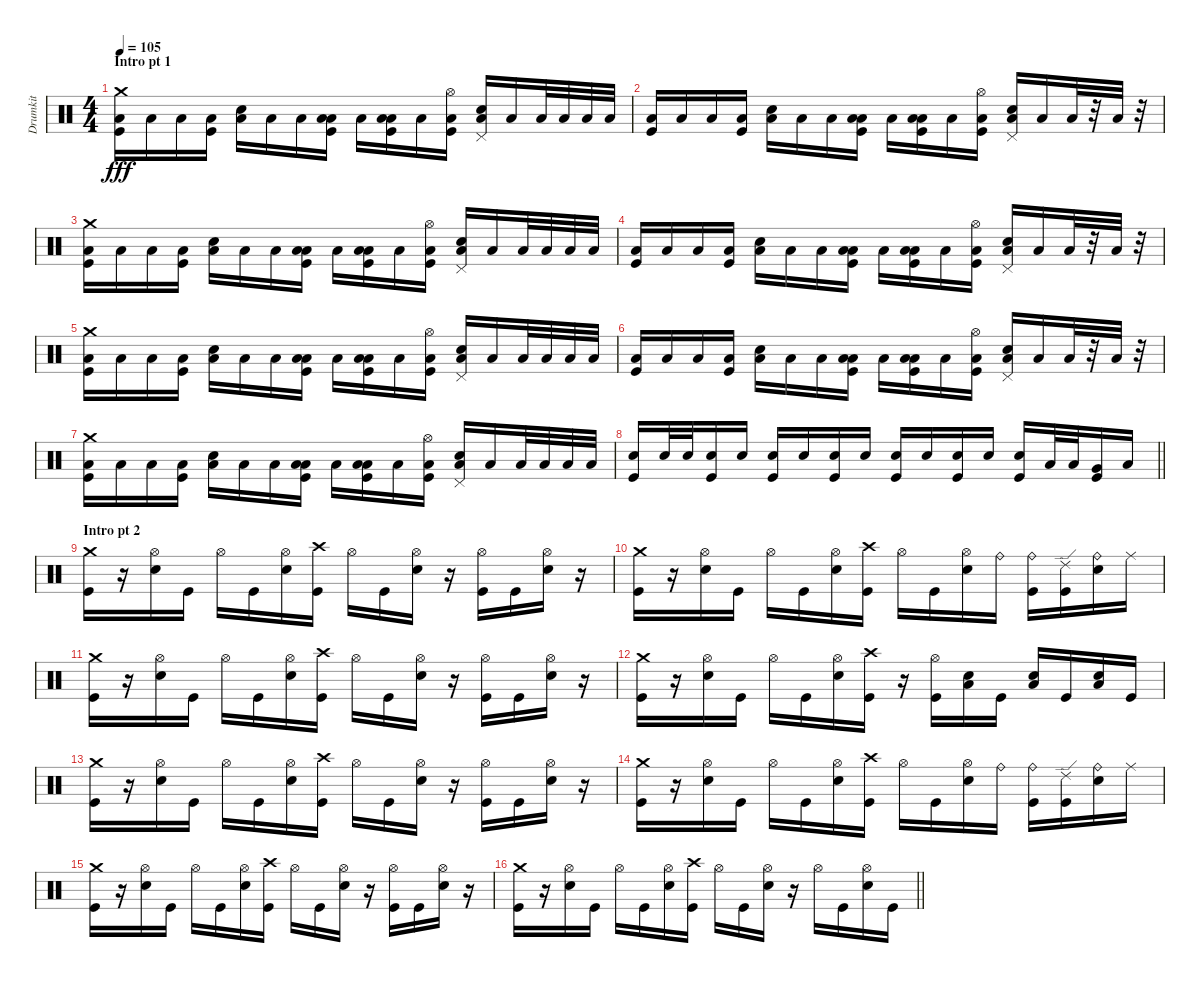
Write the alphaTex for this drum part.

\track ("Drumkit" "Drumkit") {instrument percussion}
\staff {score}
\articulation defaults
\ts (4 4)
\section ("" "Intro pt 1")
\tempo 105
\clef neutral
\ks c
("Crash medium (hit)" "Low Floor Tom (hit)" "Kick (hit)").16{dy fff} "Low Floor Tom (hit)".16 "Low Floor Tom (hit)".16 ("Low Floor Tom (hit)" "Kick (hit)").16 ("Snare (hit) 2" "Low Floor Tom (hit)").16 "Low Floor Tom (hit)".16 "Low Floor Tom (hit)".16 ("Low Tom (hit)" "Low Floor Tom (hit)" "Kick (hit)").16 "Low Floor Tom (hit)".16 ("Low Tom (hit)" "Low Floor Tom (hit)" "Kick (hit)").16 "Low Floor Tom (hit)".16 ("Hi-Hat (open)" "Low Floor Tom (hit)" "Kick (hit)").16 ("Pedal Hi-Hat (hit)" "Snare (hit) 2" "Low Floor Tom (hit)").16 "Low Floor Tom (hit)".16 "Low Floor Tom (hit)".32 "Low Floor Tom (hit)".32 "Low Floor Tom (hit)".32 "Low Floor Tom (hit)".32 |
("Low Floor Tom (hit)" "Kick (hit)").16 "Low Floor Tom (hit)".16 "Low Floor Tom (hit)".16 ("Low Floor Tom (hit)" "Kick (hit)").16 ("Snare (hit) 2" "Low Floor Tom (hit)").16 "Low Floor Tom (hit)".16 "Low Floor Tom (hit)".16 ("Low Tom (hit)" "Low Floor Tom (hit)" "Kick (hit)").16 "Low Floor Tom (hit)".16 ("Low Tom (hit)" "Low Floor Tom (hit)" "Kick (hit)").16 "Low Floor Tom (hit)".16 ("Hi-Hat (open)" "Low Floor Tom (hit)" "Kick (hit)").16 ("Pedal Hi-Hat (hit)" "Snare (hit) 2" "Low Floor Tom (hit)").16 "Low Floor Tom (hit)".16 "Low Floor Tom (hit)".32 r.32 "Low Floor Tom (hit)".32 r.32 |
("Crash medium (hit)" "Low Floor Tom (hit)" "Kick (hit)").16 "Low Floor Tom (hit)".16 "Low Floor Tom (hit)".16 ("Low Floor Tom (hit)" "Kick (hit)").16 ("Snare (hit) 2" "Low Floor Tom (hit)").16 "Low Floor Tom (hit)".16 "Low Floor Tom (hit)".16 ("Low Tom (hit)" "Low Floor Tom (hit)" "Kick (hit)").16 "Low Floor Tom (hit)".16 ("Low Tom (hit)" "Low Floor Tom (hit)" "Kick (hit)").16 "Low Floor Tom (hit)".16 ("Hi-Hat (open)" "Low Floor Tom (hit)" "Kick (hit)").16 ("Pedal Hi-Hat (hit)" "Snare (hit) 2" "Low Floor Tom (hit)").16 "Low Floor Tom (hit)".16 "Low Floor Tom (hit)".32 "Low Floor Tom (hit)".32 "Low Floor Tom (hit)".32 "Low Floor Tom (hit)".32 |
("Low Floor Tom (hit)" "Kick (hit)").16 "Low Floor Tom (hit)".16 "Low Floor Tom (hit)".16 ("Low Floor Tom (hit)" "Kick (hit)").16 ("Snare (hit) 2" "Low Floor Tom (hit)").16 "Low Floor Tom (hit)".16 "Low Floor Tom (hit)".16 ("Low Tom (hit)" "Low Floor Tom (hit)" "Kick (hit)").16 "Low Floor Tom (hit)".16 ("Low Tom (hit)" "Low Floor Tom (hit)" "Kick (hit)").16 "Low Floor Tom (hit)".16 ("Hi-Hat (open)" "Low Floor Tom (hit)" "Kick (hit)").16 ("Pedal Hi-Hat (hit)" "Snare (hit) 2" "Low Floor Tom (hit)").16 "Low Floor Tom (hit)".16 "Low Floor Tom (hit)".32 r.32 "Low Floor Tom (hit)".32 r.32 |
("Crash medium (hit)" "Low Floor Tom (hit)" "Kick (hit)").16 "Low Floor Tom (hit)".16 "Low Floor Tom (hit)".16 ("Low Floor Tom (hit)" "Kick (hit)").16 ("Snare (hit) 2" "Low Floor Tom (hit)").16 "Low Floor Tom (hit)".16 "Low Floor Tom (hit)".16 ("Low Tom (hit)" "Low Floor Tom (hit)" "Kick (hit)").16 "Low Floor Tom (hit)".16 ("Low Tom (hit)" "Low Floor Tom (hit)" "Kick (hit)").16 "Low Floor Tom (hit)".16 ("Hi-Hat (open)" "Low Floor Tom (hit)" "Kick (hit)").16 ("Pedal Hi-Hat (hit)" "Snare (hit) 2" "Low Floor Tom (hit)").16 "Low Floor Tom (hit)".16 "Low Floor Tom (hit)".32 "Low Floor Tom (hit)".32 "Low Floor Tom (hit)".32 "Low Floor Tom (hit)".32 |
("Low Floor Tom (hit)" "Kick (hit)").16 "Low Floor Tom (hit)".16 "Low Floor Tom (hit)".16 ("Low Floor Tom (hit)" "Kick (hit)").16 ("Snare (hit) 2" "Low Floor Tom (hit)").16 "Low Floor Tom (hit)".16 "Low Floor Tom (hit)".16 ("Low Tom (hit)" "Low Floor Tom (hit)" "Kick (hit)").16 "Low Floor Tom (hit)".16 ("Low Tom (hit)" "Low Floor Tom (hit)" "Kick (hit)").16 "Low Floor Tom (hit)".16 ("Hi-Hat (open)" "Low Floor Tom (hit)" "Kick (hit)").16 ("Pedal Hi-Hat (hit)" "Snare (hit) 2" "Low Floor Tom (hit)").16 "Low Floor Tom (hit)".16 "Low Floor Tom (hit)".32 r.32 "Low Floor Tom (hit)".32 r.32 |
("Crash medium (hit)" "Low Floor Tom (hit)" "Kick (hit)").16 "Low Floor Tom (hit)".16 "Low Floor Tom (hit)".16 ("Low Floor Tom (hit)" "Kick (hit)").16 ("Snare (hit) 2" "Low Floor Tom (hit)").16 "Low Floor Tom (hit)".16 "Low Floor Tom (hit)".16 ("Low Tom (hit)" "Low Floor Tom (hit)" "Kick (hit)").16 "Low Floor Tom (hit)".16 ("Low Tom (hit)" "Low Floor Tom (hit)" "Kick (hit)").16 "Low Floor Tom (hit)".16 ("Hi-Hat (open)" "Low Floor Tom (hit)" "Kick (hit)").16 ("Pedal Hi-Hat (hit)" "Snare (hit) 2" "Low Floor Tom (hit)").16 "Low Floor Tom (hit)".16 "Low Floor Tom (hit)".32 "Low Floor Tom (hit)".32 "Low Floor Tom (hit)".32 "Low Floor Tom (hit)".32 |
\barLineRight lightlight
("Snare (hit) 2" "Kick (hit)").16 "Snare (hit) 2".32 "Snare (hit) 2".32 ("Snare (hit) 2" "Kick (hit)").16 "Snare (hit) 2".16 ("Snare (hit) 2" "Kick (hit)").16 "Snare (hit) 2".16 ("Snare (hit) 2" "Kick (hit)").16 "Snare (hit) 2".16 ("Snare (hit) 2" "Kick (hit)").16 "Snare (hit) 2".16 ("Snare (hit) 2" "Kick (hit)").16 "Snare (hit) 2".16 ("Snare (hit) 2" "Kick (hit)").16 "Low Tom (hit)".32 "Low Tom (hit)".32 ("Very Low Tom (hit)" "Kick (hit)").16 "Low Floor Tom (hit)".16 |
\section ("" "Intro pt 2")
("Crash medium (hit)" "Kick (hit)").16 r.16 ("Hi-Hat (open)" "Snare (hit) 2").16 "Kick (hit)".16 "Hi-Hat (open)".16 "Kick (hit)".16 ("Hi-Hat (open)" "Snare (hit) 2").16 ("Crash high (hit)" "Kick (hit)").16 "Hi-Hat (open)".16 "Kick (hit)".16 ("Hi-Hat (open)" "Snare (hit) 2").16 r.16 ("Hi-Hat (open)" "Kick (hit)").16 "Kick (hit)".16 ("Hi-Hat (open)" "Snare (hit) 2").16 r.16 |
("Crash medium (hit)" "Kick (hit)").16 r.16 ("Hi-Hat (open)" "Snare (hit) 2").16 "Kick (hit)".16 "Hi-Hat (open)".16 "Kick (hit)".16 ("Hi-Hat (open)" "Snare (hit) 2").16 ("Crash high (hit)" "Kick (hit)").16 "Hi-Hat (open)".16 "Kick (hit)".16 ("Hi-Hat (open)" "Snare (hit) 2").16 "Ride (bell)".16 ("Ride (bell)" "Kick (hit)").16 ("Ride (edge) 2" "Kick (hit)").16 ("Ride (bell)" "Snare (hit) 2").16 "Ride (middle)".16 |
("Crash medium (hit)" "Kick (hit)").16 r.16 ("Hi-Hat (open)" "Snare (hit) 2").16 "Kick (hit)".16 "Hi-Hat (open)".16 "Kick (hit)".16 ("Hi-Hat (open)" "Snare (hit) 2").16 ("Crash high (hit)" "Kick (hit)").16 "Hi-Hat (open)".16 "Kick (hit)".16 ("Hi-Hat (open)" "Snare (hit) 2").16 r.16 ("Hi-Hat (open)" "Kick (hit)").16 "Kick (hit)".16 ("Hi-Hat (open)" "Snare (hit) 2").16 r.16 |
("Crash medium (hit)" "Kick (hit)").16 r.16 ("Hi-Hat (open)" "Snare (hit) 2").16 "Kick (hit)".16 "Hi-Hat (open)".16 "Kick (hit)".16 ("Hi-Hat (open)" "Snare (hit) 2").16 ("Crash high (hit)" "Kick (hit)").16 r.16 ("Hi-Hat (open)" "Kick (hit)").16 ("Low Floor Tom (hit)" "Snare (hit) 2").16 "Kick (hit)".16 ("Low Floor Tom (hit)" "Snare (hit) 2").16 "Kick (hit)".16 ("Low Floor Tom (hit)" "Snare (hit) 2").16 "Kick (hit)".16 |
("Crash medium (hit)" "Kick (hit)").16 r.16 ("Hi-Hat (open)" "Snare (hit) 2").16 "Kick (hit)".16 "Hi-Hat (open)".16 "Kick (hit)".16 ("Hi-Hat (open)" "Snare (hit) 2").16 ("Crash high (hit)" "Kick (hit)").16 "Hi-Hat (open)".16 "Kick (hit)".16 ("Hi-Hat (open)" "Snare (hit) 2").16 r.16 ("Hi-Hat (open)" "Kick (hit)").16 "Kick (hit)".16 ("Hi-Hat (open)" "Snare (hit) 2").16 r.16 |
("Crash medium (hit)" "Kick (hit)").16 r.16 ("Hi-Hat (open)" "Snare (hit) 2").16 "Kick (hit)".16 "Hi-Hat (open)".16 "Kick (hit)".16 ("Hi-Hat (open)" "Snare (hit) 2").16 ("Crash high (hit)" "Kick (hit)").16 "Hi-Hat (open)".16 "Kick (hit)".16 ("Hi-Hat (open)" "Snare (hit) 2").16 "Ride (bell)".16 ("Ride (bell)" "Kick (hit)").16 ("Ride (edge) 2" "Kick (hit)").16 ("Ride (bell)" "Snare (hit) 2").16 "Ride (middle)".16 |
("Crash medium (hit)" "Kick (hit)").16 r.16 ("Hi-Hat (open)" "Snare (hit) 2").16 "Kick (hit)".16 "Hi-Hat (open)".16 "Kick (hit)".16 ("Hi-Hat (open)" "Snare (hit) 2").16 ("Crash high (hit)" "Kick (hit)").16 "Hi-Hat (open)".16 "Kick (hit)".16 ("Hi-Hat (open)" "Snare (hit) 2").16 r.16 ("Hi-Hat (open)" "Kick (hit)").16 "Kick (hit)".16 ("Hi-Hat (open)" "Snare (hit) 2").16 r.16 |
\barLineRight lightlight
("Crash medium (hit)" "Kick (hit)").16 r.16 ("Hi-Hat (open)" "Snare (hit) 2").16 "Kick (hit)".16 "Hi-Hat (open)".16 "Kick (hit)".16 ("Hi-Hat (open)" "Snare (hit) 2").16 ("Crash high (hit)" "Kick (hit)").16 "Hi-Hat (open)".16 "Kick (hit)".16 ("Hi-Hat (open)" "Snare (hit) 2").16 r.16 "Hi-Hat (open)".16 "Kick (hit)".16 ("Hi-Hat (open)" "Snare (hit) 2").16 "Kick (hit)".16
